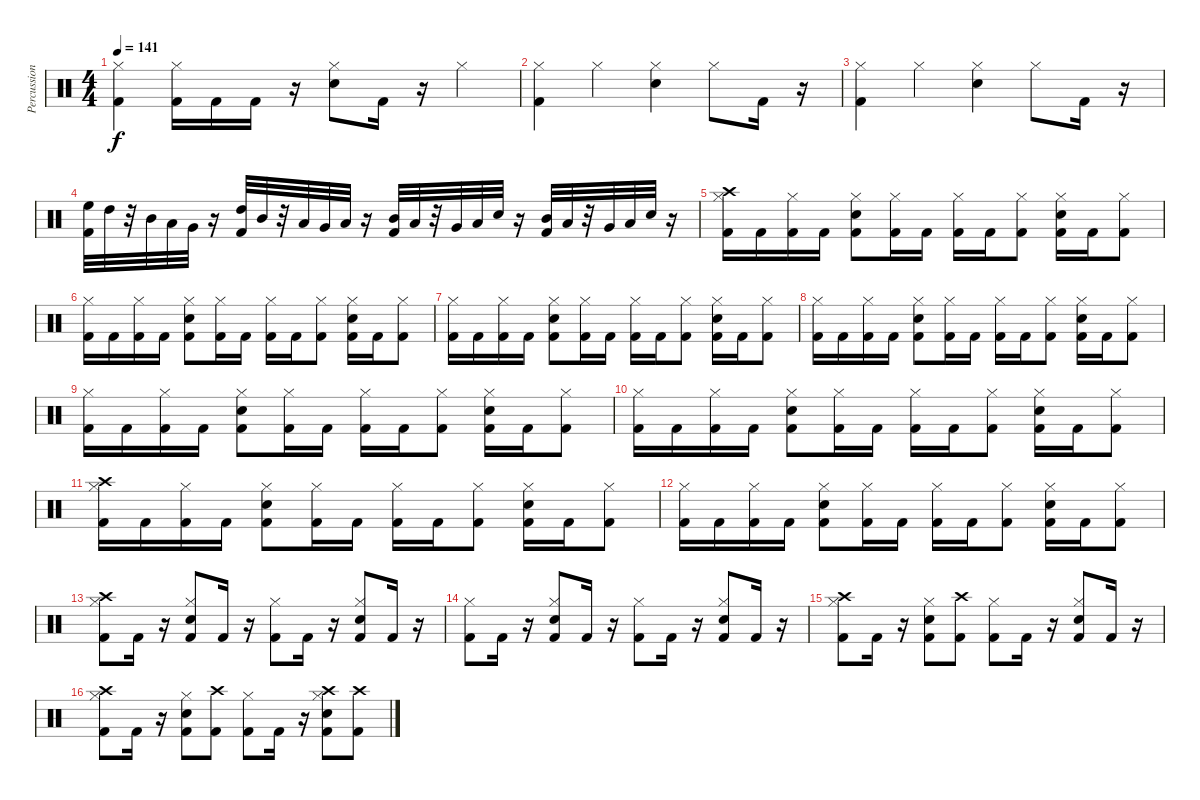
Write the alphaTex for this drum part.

\track ("Percussion" "Percussion") {instrument percussion}
\staff {score}
\articulation defaults
\ts (4 4)
\tempo 141
\clef neutral
\ks c
("Kick (hit) 2" "Hi-Hat (closed)").4{dy f} ("Kick (hit) 2" "Hi-Hat (closed)").16 "Kick (hit) 2".16 "Kick (hit) 2".16 r.16 ("Snare (hit) 2" "Hi-Hat (closed)").8 "Kick (hit) 2".16 r.16 "Hi-Hat (closed)".4 |
("Kick (hit) 2" "Hi-Hat (closed)").4 "Hi-Hat (closed)".4 ("Snare (hit) 2" "Hi-Hat (closed)").4 "Hi-Hat (closed)".8 "Kick (hit) 2".16 r.16 |
("Kick (hit) 2" "Hi-Hat (closed)").4 "Hi-Hat (closed)".4 ("Snare (hit) 2" "Hi-Hat (closed)").4 "Hi-Hat (closed)".8 "Kick (hit) 2".16 r.16 |
("Kick (hit) 2" "High Floor Tom (hit)").32 "High Tom (hit)".32 r.32 "Mid Tom (hit)".32 "Low Tom (hit)".32 "Very Low Tom (hit)".32 r.16 ("Kick (hit) 2" "High Tom (hit)").32 "Mid Tom (hit)".32 r.32 "Low Tom (hit)".32 "Very Low Tom (hit)".32 "Low Floor Tom (hit)".32 r.16 ("Kick (hit) 2" "Mid Tom (hit)").32 "Low Tom (hit)".32 r.32 "Very Low Tom (hit)".32 "Low Floor Tom (hit)".32 "Snare (hit) 2".32 r.16 ("Kick (hit) 2" "Mid Tom (hit)").32 "Low Tom (hit)".32 r.32 "Very Low Tom (hit)".32 "Low Floor Tom (hit)".32 "Snare (hit) 2".32 r.16 |
("Kick (hit) 2" "Hi-Hat (closed)" "Crash high (hit)").16 "Kick (hit) 2".16 ("Kick (hit) 2" "Hi-Hat (closed)").16 "Kick (hit) 2".16 ("Kick (hit) 2" "Snare (hit) 2" "Hi-Hat (closed)").8 ("Kick (hit) 2" "Hi-Hat (closed)").16 "Kick (hit) 2".16 ("Kick (hit) 2" "Hi-Hat (closed)").16 "Kick (hit) 2".16 ("Kick (hit) 2" "Hi-Hat (closed)").8 ("Kick (hit) 2" "Snare (hit) 2" "Hi-Hat (closed)").16 "Kick (hit) 2".16 ("Kick (hit) 2" "Hi-Hat (closed)").8 |
("Kick (hit) 2" "Hi-Hat (closed)").16 "Kick (hit) 2".16 ("Kick (hit) 2" "Hi-Hat (closed)").16 "Kick (hit) 2".16 ("Kick (hit) 2" "Snare (hit) 2" "Hi-Hat (closed)").8 ("Kick (hit) 2" "Hi-Hat (closed)").16 "Kick (hit) 2".16 ("Kick (hit) 2" "Hi-Hat (closed)").16 "Kick (hit) 2".16 ("Kick (hit) 2" "Hi-Hat (closed)").8 ("Kick (hit) 2" "Snare (hit) 2" "Hi-Hat (closed)").16 "Kick (hit) 2".16 ("Kick (hit) 2" "Hi-Hat (closed)").8 |
("Kick (hit) 2" "Hi-Hat (closed)").16 "Kick (hit) 2".16 ("Kick (hit) 2" "Hi-Hat (closed)").16 "Kick (hit) 2".16 ("Kick (hit) 2" "Snare (hit) 2" "Hi-Hat (closed)").8 ("Kick (hit) 2" "Hi-Hat (closed)").16 "Kick (hit) 2".16 ("Kick (hit) 2" "Hi-Hat (closed)").16 "Kick (hit) 2".16 ("Kick (hit) 2" "Hi-Hat (closed)").8 ("Kick (hit) 2" "Snare (hit) 2" "Hi-Hat (closed)").16 "Kick (hit) 2".16 ("Kick (hit) 2" "Hi-Hat (closed)").8 |
("Kick (hit) 2" "Hi-Hat (closed)").16 "Kick (hit) 2".16 ("Kick (hit) 2" "Hi-Hat (closed)").16 "Kick (hit) 2".16 ("Kick (hit) 2" "Snare (hit) 2" "Hi-Hat (closed)").8 ("Kick (hit) 2" "Hi-Hat (closed)").16 "Kick (hit) 2".16 ("Kick (hit) 2" "Hi-Hat (closed)").16 "Kick (hit) 2".16 ("Kick (hit) 2" "Hi-Hat (closed)").8 ("Kick (hit) 2" "Snare (hit) 2" "Hi-Hat (closed)").16 "Kick (hit) 2".16 ("Kick (hit) 2" "Hi-Hat (closed)").8 |
("Kick (hit) 2" "Hi-Hat (closed)").16 "Kick (hit) 2".16 ("Kick (hit) 2" "Hi-Hat (closed)").16 "Kick (hit) 2".16 ("Kick (hit) 2" "Snare (hit) 2" "Hi-Hat (closed)").8 ("Kick (hit) 2" "Hi-Hat (closed)").16 "Kick (hit) 2".16 ("Kick (hit) 2" "Hi-Hat (closed)").16 "Kick (hit) 2".16 ("Kick (hit) 2" "Hi-Hat (closed)").8 ("Kick (hit) 2" "Snare (hit) 2" "Hi-Hat (closed)").16 "Kick (hit) 2".16 ("Kick (hit) 2" "Hi-Hat (closed)").8 |
("Kick (hit) 2" "Hi-Hat (closed)").16 "Kick (hit) 2".16 ("Kick (hit) 2" "Hi-Hat (closed)").16 "Kick (hit) 2".16 ("Kick (hit) 2" "Snare (hit) 2" "Hi-Hat (closed)").8 ("Kick (hit) 2" "Hi-Hat (closed)").16 "Kick (hit) 2".16 ("Kick (hit) 2" "Hi-Hat (closed)").16 "Kick (hit) 2".16 ("Kick (hit) 2" "Hi-Hat (closed)").8 ("Kick (hit) 2" "Snare (hit) 2" "Hi-Hat (closed)").16 "Kick (hit) 2".16 ("Kick (hit) 2" "Hi-Hat (closed)").8 |
("Kick (hit) 2" "Hi-Hat (closed)" "Crash high (hit)").16 "Kick (hit) 2".16 ("Kick (hit) 2" "Hi-Hat (closed)").16 "Kick (hit) 2".16 ("Kick (hit) 2" "Snare (hit) 2" "Hi-Hat (closed)").8 ("Kick (hit) 2" "Hi-Hat (closed)").16 "Kick (hit) 2".16 ("Kick (hit) 2" "Hi-Hat (closed)").16 "Kick (hit) 2".16 ("Kick (hit) 2" "Hi-Hat (closed)").8 ("Kick (hit) 2" "Snare (hit) 2" "Hi-Hat (closed)").16 "Kick (hit) 2".16 ("Kick (hit) 2" "Hi-Hat (closed)").8 |
("Kick (hit) 2" "Hi-Hat (closed)").16 "Kick (hit) 2".16 ("Kick (hit) 2" "Hi-Hat (closed)").16 "Kick (hit) 2".16 ("Kick (hit) 2" "Snare (hit) 2" "Hi-Hat (closed)").8 ("Kick (hit) 2" "Hi-Hat (closed)").16 "Kick (hit) 2".16 ("Kick (hit) 2" "Hi-Hat (closed)").16 "Kick (hit) 2".16 ("Kick (hit) 2" "Hi-Hat (closed)").8 ("Kick (hit) 2" "Snare (hit) 2" "Hi-Hat (closed)").16 "Kick (hit) 2".16 ("Kick (hit) 2" "Hi-Hat (closed)").8 |
("Kick (hit) 2" "Hi-Hat (closed)" "Crash high (hit)").8 "Kick (hit) 2".16 r.16 ("Kick (hit) 2" "Snare (hit) 2" "Hi-Hat (closed)").8 "Kick (hit) 2".16 r.16 ("Kick (hit) 2" "Hi-Hat (closed)").8 "Kick (hit) 2".16 r.16 ("Kick (hit) 2" "Snare (hit) 2" "Hi-Hat (closed)").8 "Kick (hit) 2".16 r.16 |
("Kick (hit) 2" "Hi-Hat (closed)").8 "Kick (hit) 2".16 r.16 ("Kick (hit) 2" "Snare (hit) 2" "Hi-Hat (closed)").8 "Kick (hit) 2".16 r.16 ("Kick (hit) 2" "Hi-Hat (closed)").8 "Kick (hit) 2".16 r.16 ("Kick (hit) 2" "Snare (hit) 2" "Hi-Hat (closed)").8 "Kick (hit) 2".16 r.16 |
("Kick (hit) 2" "Hi-Hat (closed)" "Crash high (hit)").8 "Kick (hit) 2".16 r.16 ("Kick (hit) 2" "Snare (hit) 2" "Hi-Hat (closed)").8 ("Kick (hit) 2" "Crash high (hit)").8 ("Kick (hit) 2" "Hi-Hat (closed)").8 "Kick (hit) 2".16 r.16 ("Kick (hit) 2" "Snare (hit) 2" "Hi-Hat (closed)").8 "Kick (hit) 2".16 r.16 |
("Kick (hit) 2" "Hi-Hat (closed)" "Crash high (hit)").8 "Kick (hit) 2".16 r.16 ("Kick (hit) 2" "Snare (hit) 2" "Hi-Hat (closed)").8 ("Kick (hit) 2" "Crash high (hit)").8 ("Kick (hit) 2" "Hi-Hat (closed)").8 "Kick (hit) 2".16 r.16 ("Kick (hit) 2" "Snare (hit) 2" "Hi-Hat (closed)" "Crash high (hit)").8 ("Kick (hit) 2" "Crash high (hit)").8
